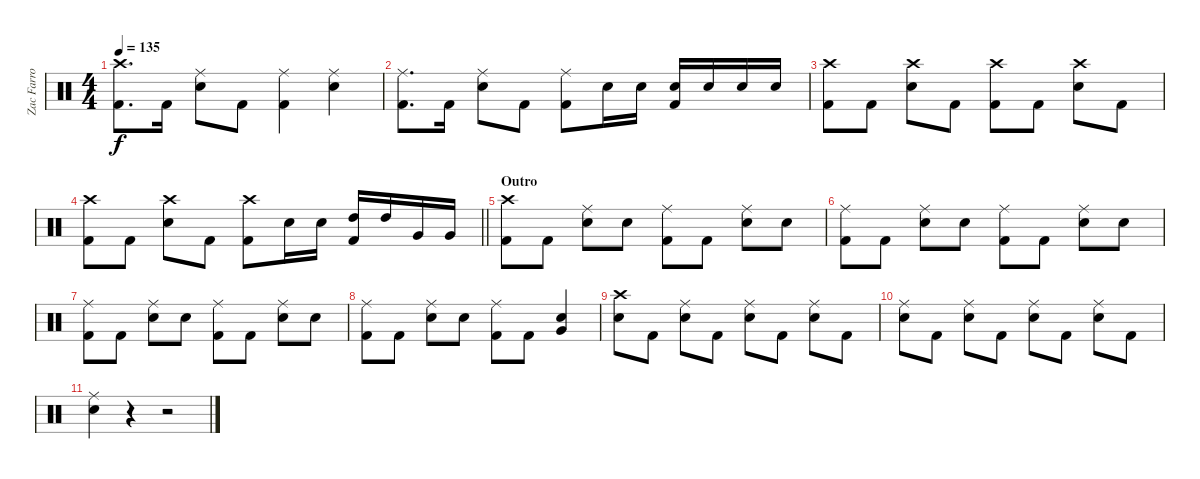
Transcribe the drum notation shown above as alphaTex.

\track ("Zac Farro (Percussion)" "Zac Farro ") {instrument percussion}
\staff {score}
\articulation defaults
\ts (4 4)
\tempo 135
\clef neutral
\ks c
("Crash high (hit)" "Kick (hit) 2").8{d dy f} "Kick (hit) 2".16 ("Ride (middle)" "Snare (hit) 2").8 "Kick (hit) 2".8 ("Ride (middle)" "Kick (hit) 2").4 ("Ride (middle)" "Snare (hit) 2").4 |
("Ride (middle)" "Kick (hit) 2").8{d} "Kick (hit) 2".16 ("Ride (middle)" "Snare (hit) 2").8 "Kick (hit) 2".8 ("Ride (middle)" "Kick (hit) 2").8 "Snare (hit) 2".16 "Snare (hit) 2".16 ("Snare (hit) 2" "Kick (hit) 2").16 "Snare (hit) 2".16 "Snare (hit) 2".16 "Snare (hit) 2".16 |
("Crash high (hit)" "Kick (hit) 2").8 "Kick (hit) 2".8 ("Crash high (hit)" "Snare (hit) 2").8 "Kick (hit) 2".8 ("Crash high (hit)" "Kick (hit) 2").8 "Kick (hit) 2".8 ("Crash high (hit)" "Snare (hit) 2").8 "Kick (hit) 2".8 |
\barLineRight lightlight
("Crash high (hit)" "Kick (hit) 2").8 "Kick (hit) 2".8 ("Crash high (hit)" "Snare (hit) 2").8 "Kick (hit) 2".8 ("Crash high (hit)" "Kick (hit) 2").8 "Snare (hit) 2".16 "Snare (hit) 2".16 ("High Tom (hit)" "Kick (hit) 2").16 "High Tom (hit)".16 "Very Low Tom (hit)".16 "Very Low Tom (hit)".16 |
\section ("" "Outro")
("Crash high (hit)" "Kick (hit) 2").8 "Kick (hit) 2".8 ("Ride (middle)" "Snare (hit) 2").8 "Snare (hit) 2".8 ("Ride (middle)" "Kick (hit) 2").8 "Kick (hit) 2".8 ("Ride (middle)" "Snare (hit) 2").8 "Snare (hit) 2".8 |
("Ride (middle)" "Kick (hit) 2").8 "Kick (hit) 2".8 ("Ride (middle)" "Snare (hit) 2").8 "Snare (hit) 2".8 ("Ride (middle)" "Kick (hit) 2").8 "Kick (hit) 2".8 ("Ride (middle)" "Snare (hit) 2").8 "Snare (hit) 2".8 |
("Ride (middle)" "Kick (hit) 2").8 "Kick (hit) 2".8 ("Ride (middle)" "Snare (hit) 2").8 "Snare (hit) 2".8 ("Ride (middle)" "Kick (hit) 2").8 "Kick (hit) 2".8 ("Ride (middle)" "Snare (hit) 2").8 "Snare (hit) 2".8 |
("Ride (middle)" "Kick (hit) 2").8 "Kick (hit) 2".8 ("Ride (middle)" "Snare (hit) 2").8 "Snare (hit) 2".8 ("Ride (middle)" "Kick (hit) 2").8 "Kick (hit) 2".8 ("Snare (hit) 2" "Very Low Tom (hit)").4 |
("Crash high (hit)" "Snare (hit) 2").8 "Kick (hit) 2".8 ("Ride (middle)" "Snare (hit) 2").8 "Kick (hit) 2".8 ("Ride (middle)" "Snare (hit) 2").8 "Kick (hit) 2".8 ("Ride (middle)" "Snare (hit) 2").8 "Kick (hit) 2".8 |
("Ride (middle)" "Snare (hit) 2").8 "Kick (hit) 2".8 ("Ride (middle)" "Snare (hit) 2").8 "Kick (hit) 2".8 ("Ride (middle)" "Snare (hit) 2").8 "Kick (hit) 2".8 ("Ride (middle)" "Snare (hit) 2").8 "Kick (hit) 2".8 |
("Ride (middle)" "Snare (hit) 2").4 r.4 r.2
